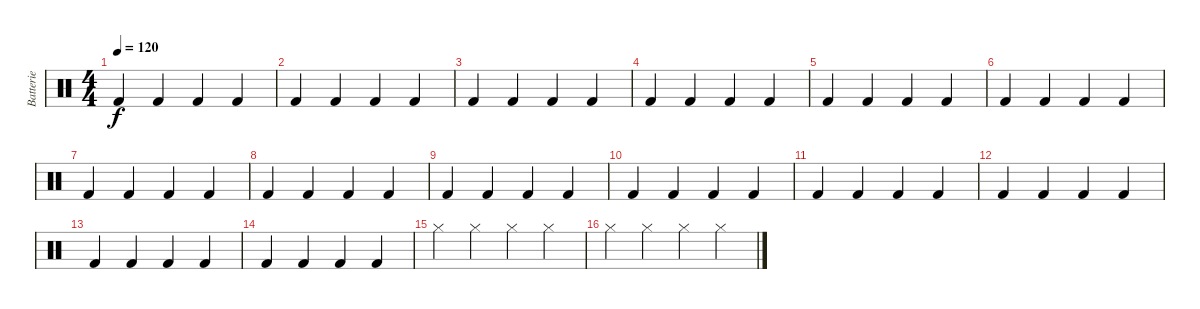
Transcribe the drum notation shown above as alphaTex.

\track ("Batterie" "Batterie") {instrument percussion}
\staff {score}
\articulation defaults
\ts (4 4)
\tempo 120
\clef neutral
\ks c "Kick (hit) 2".4{dy f} "Kick (hit) 2".4 "Kick (hit) 2".4 "Kick (hit) 2".4
|
"Kick (hit) 2".4 "Kick (hit) 2".4 "Kick (hit) 2".4 "Kick (hit) 2".4 |
"Kick (hit) 2".4 "Kick (hit) 2".4 "Kick (hit) 2".4 "Kick (hit) 2".4 |
"Kick (hit) 2".4 "Kick (hit) 2".4 "Kick (hit) 2".4 "Kick (hit) 2".4 |
"Kick (hit) 2".4 "Kick (hit) 2".4 "Kick (hit) 2".4 "Kick (hit) 2".4 |
"Kick (hit) 2".4 "Kick (hit) 2".4 "Kick (hit) 2".4 "Kick (hit) 2".4 |
"Kick (hit) 2".4 "Kick (hit) 2".4 "Kick (hit) 2".4 "Kick (hit) 2".4 |
"Kick (hit) 2".4 "Kick (hit) 2".4 "Kick (hit) 2".4 "Kick (hit) 2".4 |
"Kick (hit) 2".4 "Kick (hit) 2".4 "Kick (hit) 2".4 "Kick (hit) 2".4 |
"Kick (hit) 2".4 "Kick (hit) 2".4 "Kick (hit) 2".4 "Kick (hit) 2".4 |
"Kick (hit) 2".4 "Kick (hit) 2".4 "Kick (hit) 2".4 "Kick (hit) 2".4 |
"Kick (hit) 2".4 "Kick (hit) 2".4 "Kick (hit) 2".4 "Kick (hit) 2".4 |
"Kick (hit) 2".4 "Kick (hit) 2".4 "Kick (hit) 2".4 "Kick (hit) 2".4 |
"Kick (hit) 2".4 "Kick (hit) 2".4 "Kick (hit) 2".4 "Kick (hit) 2".4 |
"Hi-Hat (closed)".4 "Hi-Hat (closed)".4 "Hi-Hat (closed)".4 "Hi-Hat (closed)".4 |
"Hi-Hat (closed)".4 "Hi-Hat (closed)".4 "Hi-Hat (closed)".4 "Hi-Hat (closed)".4
